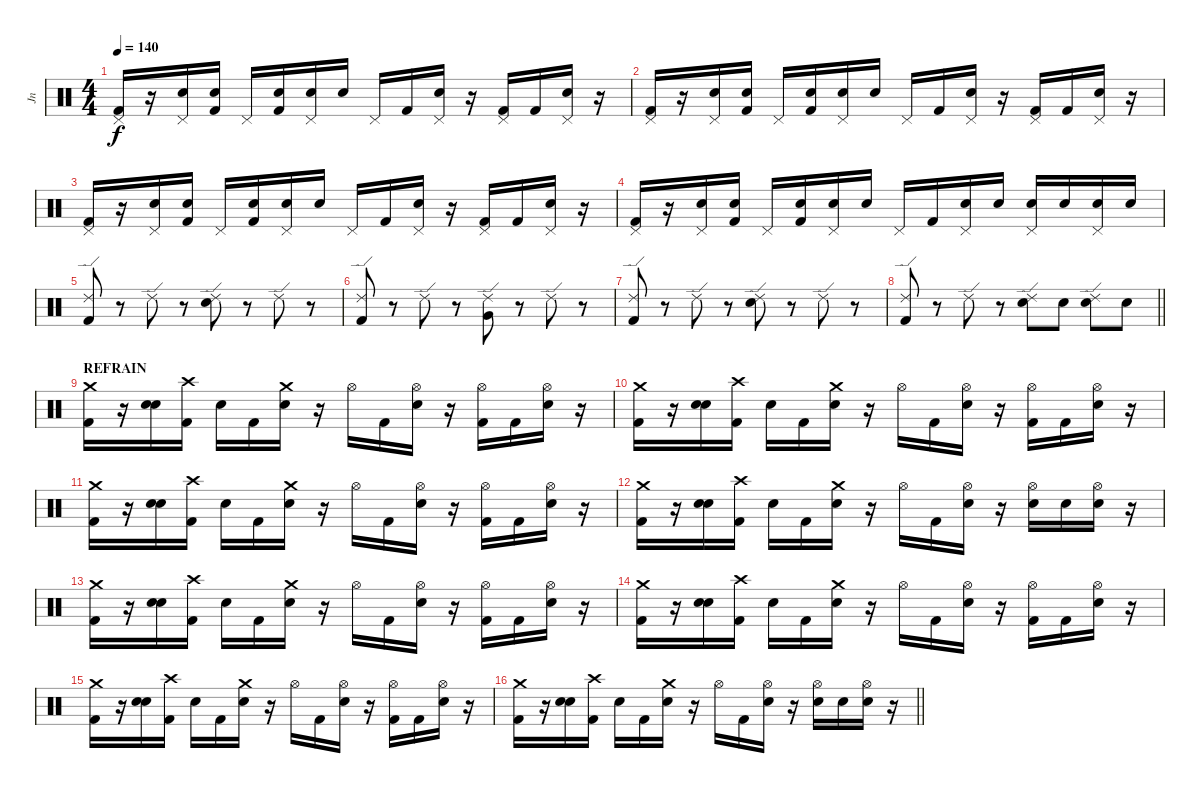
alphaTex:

\track ("Jn" "Jn") {instrument percussion}
\staff {score}
\articulation defaults
\ts (4 4)
\tempo 140
\clef neutral
\ks c
("Pedal Hi-Hat (hit)" "Kick (hit) 2").16{dy f} r.16 ("Pedal Hi-Hat (hit)" "Electric Snare (hit)").16 ("Snare (hit)" "Kick (hit) 2").16 "Pedal Hi-Hat (hit)".16 ("Snare (hit)" "Kick (hit) 2").16 ("Pedal Hi-Hat (hit)" "Electric Snare (hit)").16 "Snare (hit)".16 "Pedal Hi-Hat (hit)".16 "Kick (hit) 2".16 ("Pedal Hi-Hat (hit)" "Electric Snare (hit)").16 r.16 ("Pedal Hi-Hat (hit)" "Kick (hit) 2").16 "Kick (hit) 2".16 ("Pedal Hi-Hat (hit)" "Electric Snare (hit)").16 r.16 |
("Pedal Hi-Hat (hit)" "Kick (hit) 2").16 r.16 ("Pedal Hi-Hat (hit)" "Electric Snare (hit)").16 ("Snare (hit)" "Kick (hit) 2").16 "Pedal Hi-Hat (hit)".16 ("Snare (hit)" "Kick (hit) 2").16 ("Pedal Hi-Hat (hit)" "Electric Snare (hit)").16 "Snare (hit)".16 "Pedal Hi-Hat (hit)".16 "Kick (hit) 2".16 ("Pedal Hi-Hat (hit)" "Electric Snare (hit)").16 r.16 ("Pedal Hi-Hat (hit)" "Kick (hit) 2").16 "Kick (hit) 2".16 ("Pedal Hi-Hat (hit)" "Electric Snare (hit)").16 r.16 |
("Pedal Hi-Hat (hit)" "Kick (hit) 2").16 r.16 ("Pedal Hi-Hat (hit)" "Electric Snare (hit)").16 ("Snare (hit)" "Kick (hit) 2").16 "Pedal Hi-Hat (hit)".16 ("Snare (hit)" "Kick (hit) 2").16 ("Pedal Hi-Hat (hit)" "Electric Snare (hit)").16 "Snare (hit)".16 "Pedal Hi-Hat (hit)".16 "Kick (hit) 2".16 ("Pedal Hi-Hat (hit)" "Electric Snare (hit)").16 r.16 ("Pedal Hi-Hat (hit)" "Kick (hit) 2").16 "Kick (hit) 2".16 ("Pedal Hi-Hat (hit)" "Electric Snare (hit)").16 r.16 |
("Pedal Hi-Hat (hit)" "Kick (hit) 2").16 r.16 ("Pedal Hi-Hat (hit)" "Electric Snare (hit)").16 ("Snare (hit)" "Kick (hit) 2").16 "Pedal Hi-Hat (hit)".16 ("Snare (hit)" "Kick (hit) 2").16 ("Pedal Hi-Hat (hit)" "Electric Snare (hit)").16 "Snare (hit)".16 "Pedal Hi-Hat (hit)".16 "Kick (hit) 2".16 ("Pedal Hi-Hat (hit)" "Electric Snare (hit)").16 "Electric Snare (hit)".16 ("Pedal Hi-Hat (hit)" "Electric Snare (hit)").16 "Electric Snare (hit)".16 ("Pedal Hi-Hat (hit)" "Electric Snare (hit)").16 "Electric Snare (hit)".16 |
("Ride (edge) 2" "Kick (hit) 2").8 r.8 "Ride (edge) 2".8 r.8 ("Ride (edge) 2" "Electric Snare (hit)").8 r.8 "Ride (edge) 2".8 r.8 |
("Ride (edge) 2" "Kick (hit) 2").8 r.8 "Ride (edge) 2".8 r.8 ("Ride (edge) 2" "Very Low Tom (hit)").8 r.8 "Ride (edge) 2".8 r.8 |
("Ride (edge) 2" "Kick (hit) 2").8 r.8 "Ride (edge) 2".8 r.8 ("Ride (edge) 2" "Electric Snare (hit)").8 r.8 "Ride (edge) 2".8 r.8 |
\barLineRight lightlight
("Ride (edge) 2" "Kick (hit) 2").8 r.8 "Ride (edge) 2".8 r.8 ("Ride (edge) 2" "Electric Snare (hit)").8 "Electric Snare (hit)".8 ("Ride (edge) 2" "Electric Snare (hit)").8 "Electric Snare (hit)".8 |
\section ("" "REFRAIN")
("Crash medium (hit)" "Kick (hit) 2").16 r.16 ("Snare (hit)" "Electric Snare (hit)").16 ("Crash high (hit)" "Kick (hit) 2").16 "Snare (hit)".16 "Kick (hit) 2".16 ("Crash medium (hit)" "Electric Snare (hit)").16 r.16 "Hi-Hat (open)".16 "Kick (hit) 2".16 ("Hi-Hat (open)" "Electric Snare (hit)").16 r.16 ("Hi-Hat (open)" "Kick (hit) 2").16 "Kick (hit) 2".16 ("Hi-Hat (open)" "Electric Snare (hit)").16 r.16 |
("Crash medium (hit)" "Kick (hit) 2").16 r.16 ("Snare (hit)" "Electric Snare (hit)").16 ("Crash high (hit)" "Kick (hit) 2").16 "Snare (hit)".16 "Kick (hit) 2".16 ("Crash medium (hit)" "Electric Snare (hit)").16 r.16 "Hi-Hat (open)".16 "Kick (hit) 2".16 ("Hi-Hat (open)" "Electric Snare (hit)").16 r.16 ("Hi-Hat (open)" "Kick (hit) 2").16 "Kick (hit) 2".16 ("Hi-Hat (open)" "Electric Snare (hit)").16 r.16 |
("Crash medium (hit)" "Kick (hit) 2").16 r.16 ("Snare (hit)" "Electric Snare (hit)").16 ("Crash high (hit)" "Kick (hit) 2").16 "Snare (hit)".16 "Kick (hit) 2".16 ("Crash medium (hit)" "Electric Snare (hit)").16 r.16 "Hi-Hat (open)".16 "Kick (hit) 2".16 ("Hi-Hat (open)" "Electric Snare (hit)").16 r.16 ("Hi-Hat (open)" "Kick (hit) 2").16 "Kick (hit) 2".16 ("Hi-Hat (open)" "Electric Snare (hit)").16 r.16 |
("Crash medium (hit)" "Kick (hit) 2").16 r.16 ("Snare (hit)" "Electric Snare (hit)").16 ("Crash high (hit)" "Kick (hit) 2").16 "Snare (hit)".16 "Kick (hit) 2".16 ("Crash medium (hit)" "Electric Snare (hit)").16 r.16 "Hi-Hat (open)".16 "Kick (hit) 2".16 ("Hi-Hat (open)" "Electric Snare (hit)").16 r.16 ("Hi-Hat (open)" "Electric Snare (hit)").16 "Electric Snare (hit)".16 ("Hi-Hat (open)" "Electric Snare (hit)").16 r.16 |
("Crash medium (hit)" "Kick (hit) 2").16 r.16 ("Snare (hit)" "Electric Snare (hit)").16 ("Crash high (hit)" "Kick (hit) 2").16 "Snare (hit)".16 "Kick (hit) 2".16 ("Crash medium (hit)" "Electric Snare (hit)").16 r.16 "Hi-Hat (open)".16 "Kick (hit) 2".16 ("Hi-Hat (open)" "Electric Snare (hit)").16 r.16 ("Hi-Hat (open)" "Kick (hit) 2").16 "Kick (hit) 2".16 ("Hi-Hat (open)" "Electric Snare (hit)").16 r.16 |
("Crash medium (hit)" "Kick (hit) 2").16 r.16 ("Snare (hit)" "Electric Snare (hit)").16 ("Crash high (hit)" "Kick (hit) 2").16 "Snare (hit)".16 "Kick (hit) 2".16 ("Crash medium (hit)" "Electric Snare (hit)").16 r.16 "Hi-Hat (open)".16 "Kick (hit) 2".16 ("Hi-Hat (open)" "Electric Snare (hit)").16 r.16 ("Hi-Hat (open)" "Kick (hit) 2").16 "Kick (hit) 2".16 ("Hi-Hat (open)" "Electric Snare (hit)").16 r.16 |
("Crash medium (hit)" "Kick (hit) 2").16 r.16 ("Snare (hit)" "Electric Snare (hit)").16 ("Crash high (hit)" "Kick (hit) 2").16 "Snare (hit)".16 "Kick (hit) 2".16 ("Crash medium (hit)" "Electric Snare (hit)").16 r.16 "Hi-Hat (open)".16 "Kick (hit) 2".16 ("Hi-Hat (open)" "Electric Snare (hit)").16 r.16 ("Hi-Hat (open)" "Kick (hit) 2").16 "Kick (hit) 2".16 ("Hi-Hat (open)" "Electric Snare (hit)").16 r.16 |
\barLineRight lightlight
("Crash medium (hit)" "Kick (hit) 2").16 r.16 ("Snare (hit)" "Electric Snare (hit)").16 ("Crash high (hit)" "Kick (hit) 2").16 "Snare (hit)".16 "Kick (hit) 2".16 ("Crash medium (hit)" "Electric Snare (hit)").16 r.16 "Hi-Hat (open)".16 "Kick (hit) 2".16 ("Hi-Hat (open)" "Electric Snare (hit)").16 r.16 ("Hi-Hat (open)" "Electric Snare (hit)").16 "Electric Snare (hit)".16 ("Hi-Hat (open)" "Electric Snare (hit)").16 r.16
